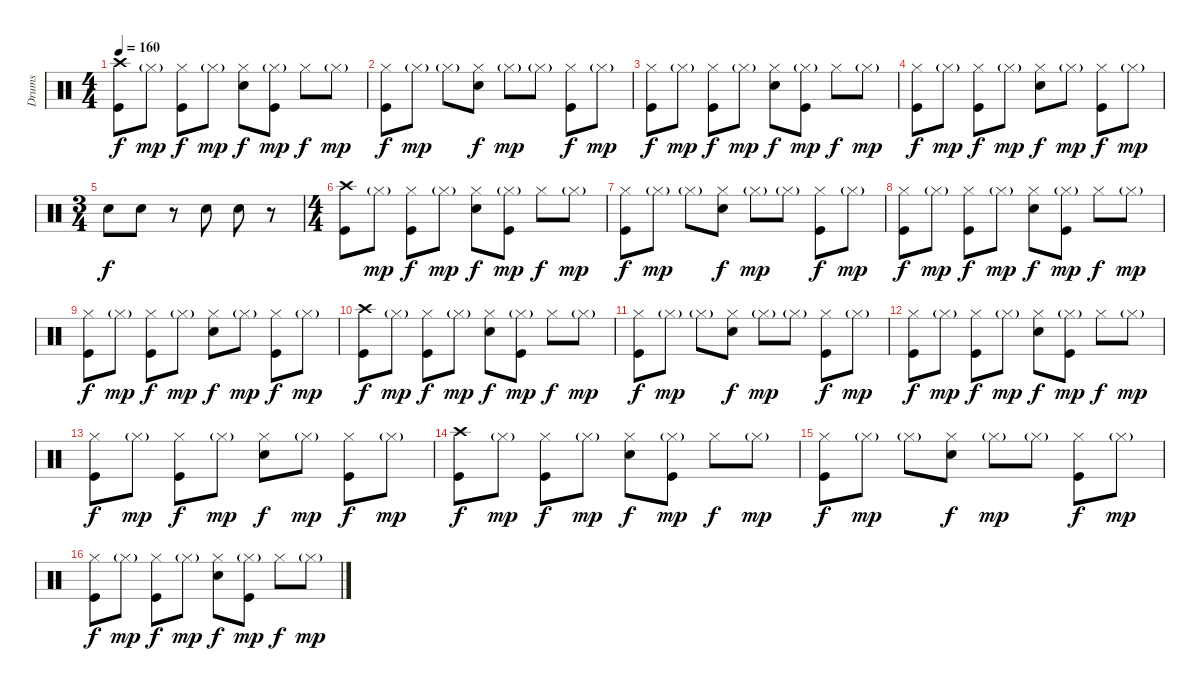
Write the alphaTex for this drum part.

\track ("Drums" "Drums") {instrument percussion}
\staff {score}
\articulation defaults
\ts (4 4)
\tempo 160
\clef neutral
\ks c
("Crash high (hit)" "Kick (hit)").8{dy f} "Hi-Hat (closed)"{g}.8{dy mp} ("Hi-Hat (closed)" "Kick (hit)").8{dy f} "Hi-Hat (closed)"{g}.8{dy mp} ("Hi-Hat (closed)" "Electric Snare (hit)").8{dy f} ("Hi-Hat (closed)"{g} "Kick (hit)").8{dy mp} "Hi-Hat (closed)".8{dy f} "Hi-Hat (closed)"{g}.8{dy mp} |
("Hi-Hat (closed)" "Kick (hit)").8{dy f} "Hi-Hat (closed)"{g}.8{dy mp} "Hi-Hat (closed)"{g}.8 ("Hi-Hat (closed)" "Electric Snare (hit)").8{dy f} "Hi-Hat (closed)"{g}.8{dy mp} "Hi-Hat (closed)"{g}.8 ("Hi-Hat (closed)" "Kick (hit)").8{dy f} "Hi-Hat (closed)"{g}.8{dy mp} |
("Hi-Hat (closed)" "Kick (hit)").8{dy f} "Hi-Hat (closed)"{g}.8{dy mp} ("Hi-Hat (closed)" "Kick (hit)").8{dy f} "Hi-Hat (closed)"{g}.8{dy mp} ("Hi-Hat (closed)" "Electric Snare (hit)").8{dy f} ("Hi-Hat (closed)"{g} "Kick (hit)").8{dy mp} "Hi-Hat (closed)".8{dy f} "Hi-Hat (closed)"{g}.8{dy mp} |
("Hi-Hat (closed)" "Kick (hit)").8{dy f} "Hi-Hat (closed)"{g}.8{dy mp} ("Hi-Hat (closed)" "Kick (hit)").8{dy f} "Hi-Hat (closed)"{g}.8{dy mp} ("Hi-Hat (closed)" "Electric Snare (hit)").8{dy f} "Hi-Hat (closed)"{g}.8{dy mp} ("Hi-Hat (closed)" "Kick (hit)").8{dy f} "Hi-Hat (closed)"{g}.8{dy mp} |
\ts (3 4)
"Electric Snare (hit)".8{dy f} "Electric Snare (hit)".8 r.8 "Electric Snare (hit)".8 "Electric Snare (hit)".8 r.8 |
\ts (4 4)
("Crash high (hit)" "Kick (hit)").8 "Hi-Hat (closed)"{g}.8{dy mp} ("Hi-Hat (closed)" "Kick (hit)").8{dy f} "Hi-Hat (closed)"{g}.8{dy mp} ("Hi-Hat (closed)" "Electric Snare (hit)").8{dy f} ("Hi-Hat (closed)"{g} "Kick (hit)").8{dy mp} "Hi-Hat (closed)".8{dy f} "Hi-Hat (closed)"{g}.8{dy mp} |
("Hi-Hat (closed)" "Kick (hit)").8{dy f} "Hi-Hat (closed)"{g}.8{dy mp} "Hi-Hat (closed)"{g}.8 ("Hi-Hat (closed)" "Electric Snare (hit)").8{dy f} "Hi-Hat (closed)"{g}.8{dy mp} "Hi-Hat (closed)"{g}.8 ("Hi-Hat (closed)" "Kick (hit)").8{dy f} "Hi-Hat (closed)"{g}.8{dy mp} |
("Hi-Hat (closed)" "Kick (hit)").8{dy f} "Hi-Hat (closed)"{g}.8{dy mp} ("Hi-Hat (closed)" "Kick (hit)").8{dy f} "Hi-Hat (closed)"{g}.8{dy mp} ("Hi-Hat (closed)" "Electric Snare (hit)").8{dy f} ("Hi-Hat (closed)"{g} "Kick (hit)").8{dy mp} "Hi-Hat (closed)".8{dy f} "Hi-Hat (closed)"{g}.8{dy mp} |
("Hi-Hat (closed)" "Kick (hit)").8{dy f} "Hi-Hat (closed)"{g}.8{dy mp} ("Hi-Hat (closed)" "Kick (hit)").8{dy f} "Hi-Hat (closed)"{g}.8{dy mp} ("Hi-Hat (closed)" "Electric Snare (hit)").8{dy f} "Hi-Hat (closed)"{g}.8{dy mp} ("Hi-Hat (closed)" "Kick (hit)").8{dy f} "Hi-Hat (closed)"{g}.8{dy mp} |
("Crash high (hit)" "Kick (hit)").8{dy f} "Hi-Hat (closed)"{g}.8{dy mp} ("Hi-Hat (closed)" "Kick (hit)").8{dy f} "Hi-Hat (closed)"{g}.8{dy mp} ("Hi-Hat (closed)" "Electric Snare (hit)").8{dy f} ("Hi-Hat (closed)"{g} "Kick (hit)").8{dy mp} "Hi-Hat (closed)".8{dy f} "Hi-Hat (closed)"{g}.8{dy mp} |
("Hi-Hat (closed)" "Kick (hit)").8{dy f} "Hi-Hat (closed)"{g}.8{dy mp} "Hi-Hat (closed)"{g}.8 ("Hi-Hat (closed)" "Electric Snare (hit)").8{dy f} "Hi-Hat (closed)"{g}.8{dy mp} "Hi-Hat (closed)"{g}.8 ("Hi-Hat (closed)" "Kick (hit)").8{dy f} "Hi-Hat (closed)"{g}.8{dy mp} |
("Hi-Hat (closed)" "Kick (hit)").8{dy f} "Hi-Hat (closed)"{g}.8{dy mp} ("Hi-Hat (closed)" "Kick (hit)").8{dy f} "Hi-Hat (closed)"{g}.8{dy mp} ("Hi-Hat (closed)" "Electric Snare (hit)").8{dy f} ("Hi-Hat (closed)"{g} "Kick (hit)").8{dy mp} "Hi-Hat (closed)".8{dy f} "Hi-Hat (closed)"{g}.8{dy mp} |
("Hi-Hat (closed)" "Kick (hit)").8{dy f} "Hi-Hat (closed)"{g}.8{dy mp} ("Hi-Hat (closed)" "Kick (hit)").8{dy f} "Hi-Hat (closed)"{g}.8{dy mp} ("Hi-Hat (closed)" "Electric Snare (hit)").8{dy f} "Hi-Hat (closed)"{g}.8{dy mp} ("Hi-Hat (closed)" "Kick (hit)").8{dy f} "Hi-Hat (closed)"{g}.8{dy mp} |
("Crash high (hit)" "Kick (hit)").8{dy f} "Hi-Hat (closed)"{g}.8{dy mp} ("Hi-Hat (closed)" "Kick (hit)").8{dy f} "Hi-Hat (closed)"{g}.8{dy mp} ("Hi-Hat (closed)" "Electric Snare (hit)").8{dy f} ("Hi-Hat (closed)"{g} "Kick (hit)").8{dy mp} "Hi-Hat (closed)".8{dy f} "Hi-Hat (closed)"{g}.8{dy mp} |
("Hi-Hat (closed)" "Kick (hit)").8{dy f} "Hi-Hat (closed)"{g}.8{dy mp} "Hi-Hat (closed)"{g}.8 ("Hi-Hat (closed)" "Electric Snare (hit)").8{dy f} "Hi-Hat (closed)"{g}.8{dy mp} "Hi-Hat (closed)"{g}.8 ("Hi-Hat (closed)" "Kick (hit)").8{dy f} "Hi-Hat (closed)"{g}.8{dy mp} |
("Hi-Hat (closed)" "Kick (hit)").8{dy f} "Hi-Hat (closed)"{g}.8{dy mp} ("Hi-Hat (closed)" "Kick (hit)").8{dy f} "Hi-Hat (closed)"{g}.8{dy mp} ("Hi-Hat (closed)" "Electric Snare (hit)").8{dy f} ("Hi-Hat (closed)"{g} "Kick (hit)").8{dy mp} "Hi-Hat (closed)".8{dy f} "Hi-Hat (closed)"{g}.8{dy mp}
